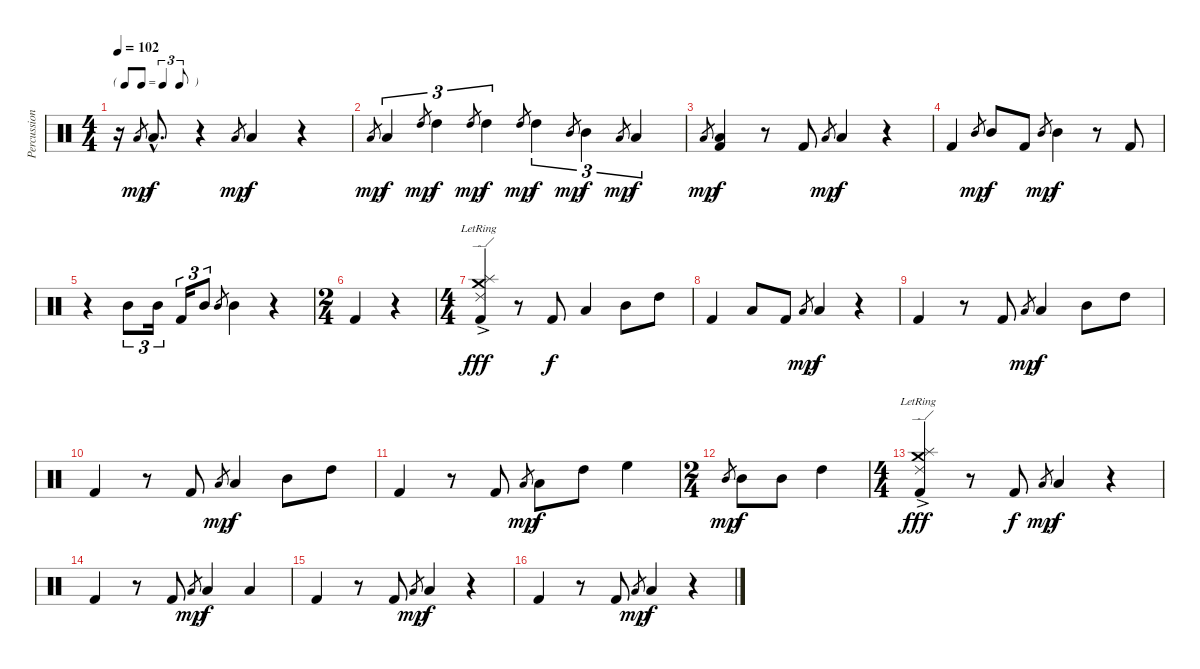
\track ("Percussion" "Percussion") {instrument percussion}
\staff {score}
\articulation defaults
\ts (4 4)
\tf triplet8th
\tempo 102
\clef neutral
\ks c
r.16{dy mp} "Low Tom (hit)".8{gr} "Low Tom (hit)"{hac}.8{d dy f} r.4 "Low Tom (hit)".8{gr dy mp} "Low Tom (hit)".4{dy f} r.4 |
"Low Tom (hit)".8{gr dy mp} "Low Tom (hit)".4{tu (3 2) dy f} "High Tom (hit)".8{gr dy mp} "High Tom (hit)".4{tu (3 2) dy f} "High Tom (hit)".8{gr dy mp} "High Tom (hit)".4{tu (3 2) dy f} "High Tom (hit)".8{gr dy mp} "High Tom (hit)".4{tu (3 2) dy f} "Mid Tom (hit)".8{gr dy mp} "Mid Tom (hit)".4{tu (3 2) dy f} "Low Tom (hit)".8{gr dy mp} "Low Tom (hit)".4{tu (3 2) dy f} |
"Low Tom (hit)".8{gr dy mp} ("Kick (hit) 2" "Low Tom (hit)").4{dy f} r.8 "Kick (hit) 2".8 "Low Tom (hit)".8{gr dy mp} "Low Tom (hit)".4{dy f} r.4 |
"Kick (hit) 2".4 "Mid Tom (hit)".8{gr dy mp} "Mid Tom (hit)".8{dy f} "Kick (hit) 2".8 "Mid Tom (hit)".8{gr dy mp} "Mid Tom (hit)".4{dy f} r.8 "Kick (hit) 2".8 |
r.4 "Mid Tom (hit)".8{tu (3 2)} "Mid Tom (hit)".16{tu (3 2)} "Kick (hit) 2".16{tu (3 2)} "Mid Tom (hit)".8{tu (3 2)} "Mid Tom (hit)".8{gr} "Mid Tom (hit)".4 r.4 |
\ts (2 4)
"Kick (hit) 2".4 r.4 |
\ts (4 4)
("Kick (hit) 2" "Crash medium (hit)"{ac lr} "Splash (hit)"{ac lr} "Ride (edge) 2"{ac lr}).4{dy fff} r.8 "Kick (hit) 2".8{dy f} "Low Tom (hit)".4 "Mid Tom (hit)".8 "High Tom (hit)".8 |
"Kick (hit) 2".4 "Low Tom (hit)".8 "Kick (hit) 2".8 "Low Tom (hit)".8{gr dy mp} "Low Tom (hit)".4{dy f} r.4 |
"Kick (hit) 2".4 r.8 "Kick (hit) 2".8 "Low Tom (hit)".8{gr dy mp} "Low Tom (hit)".4{dy f} "Mid Tom (hit)".8 "High Tom (hit)".8 |
"Kick (hit) 2".4 r.8 "Kick (hit) 2".8 "Low Tom (hit)".8{gr dy mp} "Low Tom (hit)".4{dy f} "Mid Tom (hit)".8 "High Tom (hit)".8 |
"Kick (hit) 2".4 r.8 "Kick (hit) 2".8 "Low Tom (hit)".8{gr dy mp} "Low Tom (hit)".8{dy f} "High Tom (hit)".8 "High Floor Tom (hit)".4 |
\ts (2 4)
"Mid Tom (hit)".8{gr dy mp} "Mid Tom (hit)".8{dy f} "Mid Tom (hit)".8 "High Tom (hit)".4 |
\ts (4 4)
("Kick (hit) 2" "Crash medium (hit)"{ac lr} "Splash (hit)"{ac lr} "Ride (edge) 2"{ac lr}).4{dy fff} r.8 "Kick (hit) 2".8{dy f} "Low Tom (hit)".8{gr dy mp} "Low Tom (hit)".4{dy f} r.4 |
"Kick (hit) 2".4 r.8 "Kick (hit) 2".8 "Low Tom (hit)".8{gr dy mp} "Low Tom (hit)".4{dy f} "Low Tom (hit)".4 |
"Kick (hit) 2".4 r.8 "Kick (hit) 2".8 "Low Tom (hit)".8{gr dy mp} "Low Tom (hit)".4{dy f} r.4 |
"Kick (hit) 2".4 r.8 "Kick (hit) 2".8 "Low Tom (hit)".8{gr dy mp} "Low Tom (hit)".4{dy f} r.4
